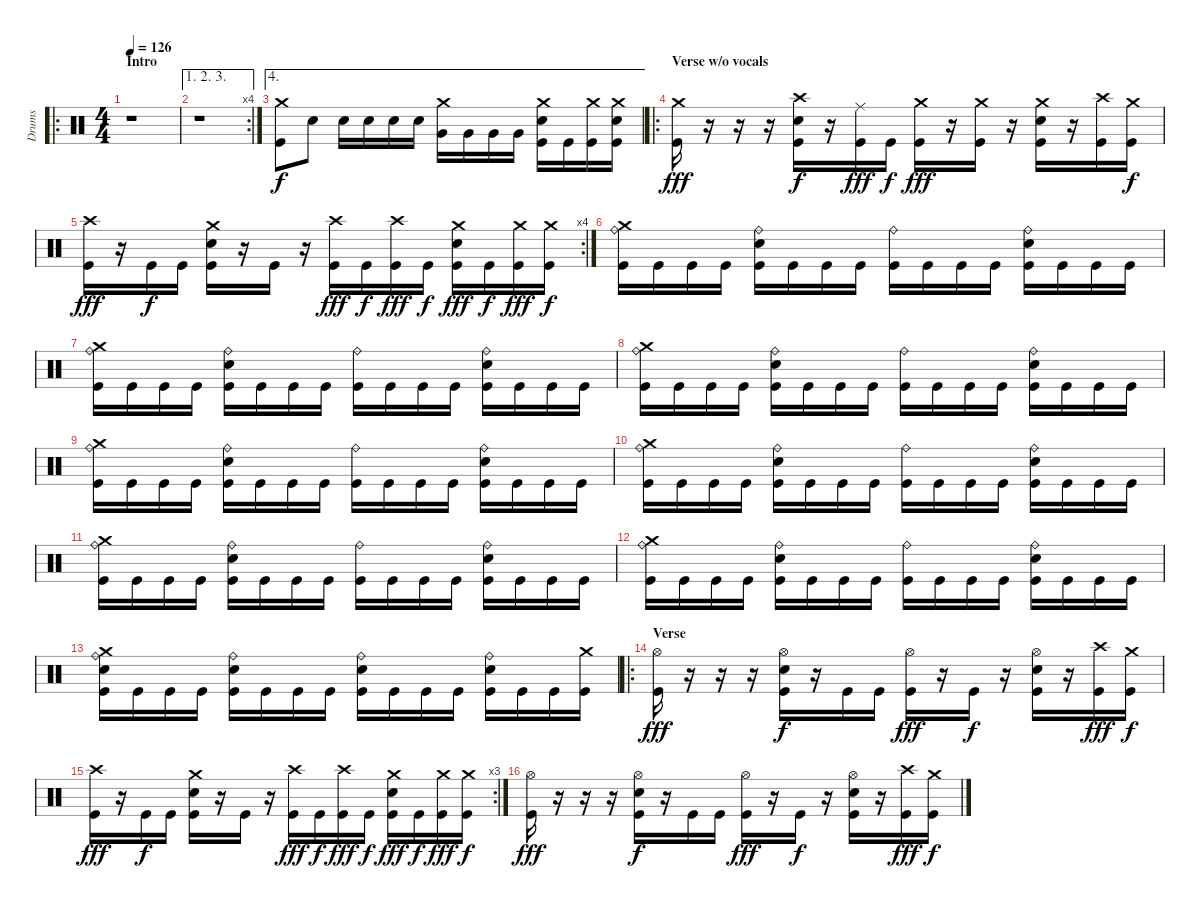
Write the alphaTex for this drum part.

\track ("Drums" "Drums") {instrument percussion}
\staff {score}
\articulation defaults
\ro
\ts (4 4)
\section ("" "Intro")
\tempo 126
\clef neutral
\ks c
r.1{dy f} |
\ae (1 2 3)
\rc 4
r.1 |
\ae 4
("Crash medium (hit)" "Kick (hit)").8 "Electric Snare (hit)".8 "Electric Snare (hit)".16 "Electric Snare (hit)".16 "Electric Snare (hit)".16 "Electric Snare (hit)".16 ("Crash medium (hit)" "Very Low Tom (hit)").16 "Very Low Tom (hit)".16 "Very Low Tom (hit)".16 "Very Low Tom (hit)".16 ("Crash medium (hit)" "Electric Snare (hit)" "Kick (hit)").16 "Kick (hit)".16 ("Crash medium (hit)" "Kick (hit)").16 ("Crash medium (hit)" "Electric Snare (hit)" "Kick (hit)").16 |
\ro
\section ("" "Verse w/o vocals")
("Crash medium (hit)" "Kick (hit)").16{dy fff} r.16 r.16 r.16 ("Crash high (hit)" "Electric Snare (hit)" "Kick (hit)").16{dy f} r.16 ("Ride (middle)" "Kick (hit)").16{dy fff} "Kick (hit)".16{dy f} ("Crash medium (hit)" "Kick (hit)").16{dy fff} r.16 ("Crash medium (hit)" "Kick (hit)").16 r.16 ("Crash medium (hit)" "Electric Snare (hit)" "Kick (hit)").16 r.16 ("Crash high (hit)" "Kick (hit)").16 ("Crash medium (hit)" "Kick (hit)").16{dy f} |
\rc 4
("Crash high (hit)" "Kick (hit)").16{dy fff} r.16 "Kick (hit)".16{dy f} "Kick (hit)".16 ("Crash medium (hit)" "Electric Snare (hit)" "Kick (hit)").16 r.16 "Kick (hit)".16 r.16 ("Crash high (hit)" "Kick (hit)").16{dy fff} "Kick (hit)".16{dy f} ("Crash high (hit)" "Kick (hit)").16{dy fff} "Kick (hit)".16{dy f} ("Crash medium (hit)" "Electric Snare (hit)" "Kick (hit)").16{dy fff} "Kick (hit)".16{dy f} ("Crash medium (hit)" "Kick (hit)").16{dy fff} ("Crash medium (hit)" "Kick (hit)").16{dy f} |
("Ride (bell)" "Crash medium (hit)" "Kick (hit)").16 "Kick (hit)".16 "Kick (hit)".16 "Kick (hit)".16 ("Ride (bell)" "Electric Snare (hit)" "Kick (hit)").16 "Kick (hit)".16 "Kick (hit)".16 "Kick (hit)".16 ("Ride (bell)" "Kick (hit)").16 "Kick (hit)".16 "Kick (hit)".16 "Kick (hit)".16 ("Ride (bell)" "Electric Snare (hit)" "Kick (hit)").16 "Kick (hit)".16 "Kick (hit)".16 "Kick (hit)".16 |
("Ride (bell)" "Crash medium (hit)" "Kick (hit)").16 "Kick (hit)".16 "Kick (hit)".16 "Kick (hit)".16 ("Ride (bell)" "Electric Snare (hit)" "Kick (hit)").16 "Kick (hit)".16 "Kick (hit)".16 "Kick (hit)".16 ("Ride (bell)" "Kick (hit)").16 "Kick (hit)".16 "Kick (hit)".16 "Kick (hit)".16 ("Ride (bell)" "Electric Snare (hit)" "Kick (hit)").16 "Kick (hit)".16 "Kick (hit)".16 "Kick (hit)".16 |
("Ride (bell)" "Crash medium (hit)" "Kick (hit)").16 "Kick (hit)".16 "Kick (hit)".16 "Kick (hit)".16 ("Ride (bell)" "Electric Snare (hit)" "Kick (hit)").16 "Kick (hit)".16 "Kick (hit)".16 "Kick (hit)".16 ("Ride (bell)" "Kick (hit)").16 "Kick (hit)".16 "Kick (hit)".16 "Kick (hit)".16 ("Ride (bell)" "Electric Snare (hit)" "Kick (hit)").16 "Kick (hit)".16 "Kick (hit)".16 "Kick (hit)".16 |
("Ride (bell)" "Crash medium (hit)" "Kick (hit)").16 "Kick (hit)".16 "Kick (hit)".16 "Kick (hit)".16 ("Ride (bell)" "Electric Snare (hit)" "Kick (hit)").16 "Kick (hit)".16 "Kick (hit)".16 "Kick (hit)".16 ("Ride (bell)" "Kick (hit)").16 "Kick (hit)".16 "Kick (hit)".16 "Kick (hit)".16 ("Ride (bell)" "Electric Snare (hit)" "Kick (hit)").16 "Kick (hit)".16 "Kick (hit)".16 "Kick (hit)".16 |
("Ride (bell)" "Crash medium (hit)" "Kick (hit)").16 "Kick (hit)".16 "Kick (hit)".16 "Kick (hit)".16 ("Ride (bell)" "Electric Snare (hit)" "Kick (hit)").16 "Kick (hit)".16 "Kick (hit)".16 "Kick (hit)".16 ("Ride (bell)" "Kick (hit)").16 "Kick (hit)".16 "Kick (hit)".16 "Kick (hit)".16 ("Ride (bell)" "Electric Snare (hit)" "Kick (hit)").16 "Kick (hit)".16 "Kick (hit)".16 "Kick (hit)".16 |
("Ride (bell)" "Crash medium (hit)" "Kick (hit)").16 "Kick (hit)".16 "Kick (hit)".16 "Kick (hit)".16 ("Ride (bell)" "Electric Snare (hit)" "Kick (hit)").16 "Kick (hit)".16 "Kick (hit)".16 "Kick (hit)".16 ("Ride (bell)" "Kick (hit)").16 "Kick (hit)".16 "Kick (hit)".16 "Kick (hit)".16 ("Ride (bell)" "Electric Snare (hit)" "Kick (hit)").16 "Kick (hit)".16 "Kick (hit)".16 "Kick (hit)".16 |
("Ride (bell)" "Crash medium (hit)" "Kick (hit)").16 "Kick (hit)".16 "Kick (hit)".16 "Kick (hit)".16 ("Ride (bell)" "Electric Snare (hit)" "Kick (hit)").16 "Kick (hit)".16 "Kick (hit)".16 "Kick (hit)".16 ("Ride (bell)" "Kick (hit)").16 "Kick (hit)".16 "Kick (hit)".16 "Kick (hit)".16 ("Ride (bell)" "Electric Snare (hit)" "Kick (hit)").16 "Kick (hit)".16 "Kick (hit)".16 "Kick (hit)".16 |
("Ride (bell)" "Crash medium (hit)" "Electric Snare (hit)" "Kick (hit)").16 "Kick (hit)".16 "Kick (hit)".16 "Kick (hit)".16 ("Ride (bell)" "Electric Snare (hit)" "Kick (hit)").16 "Kick (hit)".16 "Kick (hit)".16 "Kick (hit)".16 ("Ride (bell)" "Electric Snare (hit)" "Kick (hit)").16 "Kick (hit)".16 "Kick (hit)".16 "Kick (hit)".16 ("Ride (bell)" "Electric Snare (hit)" "Kick (hit)").16 "Kick (hit)".16 "Kick (hit)".16 ("Crash medium (hit)" "Kick (hit)").16 |
\ro
\section ("" "Verse")
("Hi-Hat (open)" "Kick (hit)").16{dy fff} r.16 r.16 r.16 ("Hi-Hat (open)" "Electric Snare (hit)" "Kick (hit)").16{dy f} r.16 "Kick (hit)".16 "Kick (hit)".16 ("Hi-Hat (open)" "Kick (hit)").16{dy fff} r.16 "Kick (hit)".16{dy f} r.16 ("Hi-Hat (open)" "Electric Snare (hit)" "Kick (hit)").16 r.16 ("Crash high (hit)" "Kick (hit)").16{dy fff} ("Crash medium (hit)" "Kick (hit)").16{dy f} |
\rc 3
("Crash high (hit)" "Kick (hit)").16{dy fff} r.16 "Kick (hit)".16{dy f} "Kick (hit)".16 ("Crash medium (hit)" "Electric Snare (hit)" "Kick (hit)").16 r.16 "Kick (hit)".16 r.16 ("Crash high (hit)" "Kick (hit)").16{dy fff} "Kick (hit)".16{dy f} ("Crash high (hit)" "Kick (hit)").16{dy fff} "Kick (hit)".16{dy f} ("Crash medium (hit)" "Electric Snare (hit)" "Kick (hit)").16{dy fff} "Kick (hit)".16{dy f} ("Crash medium (hit)" "Kick (hit)").16{dy fff} ("Crash medium (hit)" "Kick (hit)").16{dy f} |
("Hi-Hat (open)" "Kick (hit)").16{dy fff} r.16 r.16 r.16 ("Hi-Hat (open)" "Electric Snare (hit)" "Kick (hit)").16{dy f} r.16 "Kick (hit)".16 "Kick (hit)".16 ("Hi-Hat (open)" "Kick (hit)").16{dy fff} r.16 "Kick (hit)".16{dy f} r.16 ("Hi-Hat (open)" "Electric Snare (hit)" "Kick (hit)").16 r.16 ("Crash high (hit)" "Kick (hit)").16{dy fff} ("Crash medium (hit)" "Kick (hit)").16{dy f}
